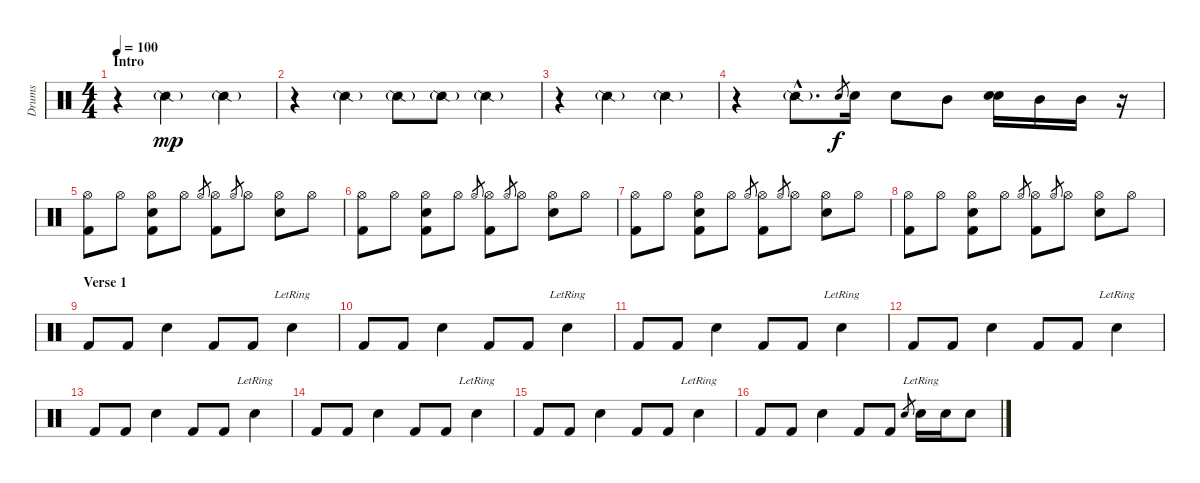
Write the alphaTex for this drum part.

\track ("Drums" "Drums") {instrument percussion}
\staff {score}
\articulation defaults
\ts (4 4)
\section ("" "Intro")
\tempo 100
\clef neutral
\ks c
r.4{dy mp volume 6} "Snare (side stick) 2"{g}.2 "Snare (side stick) 2"{g}.4 |
r.4 "Snare (side stick) 2"{g}.4 "Snare (side stick) 2"{g}.8 "Snare (side stick) 2"{g}.8 "Snare (side stick) 2"{g}.4 |
r.4 "Snare (side stick) 2"{g}.2 "Snare (side stick) 2"{g}.4 |
r.4 "Snare (side stick) 2"{g hac}.8{d} "Electric Snare (hit)".8{gr dy f} "Electric Snare (hit)".16{volume 12} "Electric Snare (hit)".8 "Mid Tom (hit)".8 ("Electric Snare (hit)" "Electric Snare (hit)").16 "Mid Tom (hit)".16 "Mid Tom (hit)".16 r.16 |
("Hi-Hat (open)" "Kick (hit) 2").8 "Hi-Hat (open)".8 ("Electric Snare (hit)" "Hi-Hat (open)" "Kick (hit) 2").8 "Hi-Hat (open)".8 "Hi-Hat (open)".8{gr} ("Hi-Hat (open)" "Kick (hit) 2").8 "Hi-Hat (open)".8{gr} "Hi-Hat (open)".8 ("Electric Snare (hit)" "Hi-Hat (open)").8 "Hi-Hat (open)".8 |
("Hi-Hat (open)" "Kick (hit) 2").8 "Hi-Hat (open)".8 ("Electric Snare (hit)" "Hi-Hat (open)" "Kick (hit) 2").8 "Hi-Hat (open)".8 "Hi-Hat (open)".8{gr} ("Hi-Hat (open)" "Kick (hit) 2").8 "Hi-Hat (open)".8{gr} "Hi-Hat (open)".8 ("Electric Snare (hit)" "Hi-Hat (open)").8 "Hi-Hat (open)".8 |
("Hi-Hat (open)" "Kick (hit) 2").8 "Hi-Hat (open)".8 ("Electric Snare (hit)" "Hi-Hat (open)" "Kick (hit) 2").8 "Hi-Hat (open)".8 "Hi-Hat (open)".8{gr} ("Hi-Hat (open)" "Kick (hit) 2").8 "Hi-Hat (open)".8{gr} "Hi-Hat (open)".8 ("Electric Snare (hit)" "Hi-Hat (open)").8 "Hi-Hat (open)".8 |
("Hi-Hat (open)" "Kick (hit) 2").8 "Hi-Hat (open)".8 ("Electric Snare (hit)" "Hi-Hat (open)" "Kick (hit) 2").8 "Hi-Hat (open)".8 "Hi-Hat (open)".8{gr} ("Hi-Hat (open)" "Kick (hit) 2").8 "Hi-Hat (open)".8{gr} "Hi-Hat (open)".8 ("Electric Snare (hit)" "Hi-Hat (open)").8 "Hi-Hat (open)".8 |
\section ("" "Verse 1")
"Kick (hit) 2".8 "Kick (hit) 2".8 "Electric Snare (hit)".4 "Kick (hit) 2".8 "Kick (hit) 2".8 "Electric Snare (hit)"{lr}.4 |
"Kick (hit) 2".8 "Kick (hit) 2".8 "Electric Snare (hit)".4 "Kick (hit) 2".8 "Kick (hit) 2".8 "Electric Snare (hit)"{lr}.4 |
"Kick (hit) 2".8 "Kick (hit) 2".8 "Electric Snare (hit)".4 "Kick (hit) 2".8 "Kick (hit) 2".8 "Electric Snare (hit)"{lr}.4 |
"Kick (hit) 2".8 "Kick (hit) 2".8 "Electric Snare (hit)".4 "Kick (hit) 2".8 "Kick (hit) 2".8 "Electric Snare (hit)"{lr}.4 |
"Kick (hit) 2".8 "Kick (hit) 2".8 "Electric Snare (hit)".4 "Kick (hit) 2".8 "Kick (hit) 2".8 "Electric Snare (hit)"{lr}.4 |
"Kick (hit) 2".8 "Kick (hit) 2".8 "Electric Snare (hit)".4 "Kick (hit) 2".8 "Kick (hit) 2".8 "Electric Snare (hit)"{lr}.4 |
"Kick (hit) 2".8 "Kick (hit) 2".8 "Electric Snare (hit)".4 "Kick (hit) 2".8 "Kick (hit) 2".8 "Electric Snare (hit)"{lr}.4 |
"Kick (hit) 2".8 "Kick (hit) 2".8 "Electric Snare (hit)".4 "Kick (hit) 2".8 "Kick (hit) 2".8 "Electric Snare (hit)".8{gr} "Electric Snare (hit)"{lr}.16 "Electric Snare (hit)".16 "Electric Snare (hit)".8
